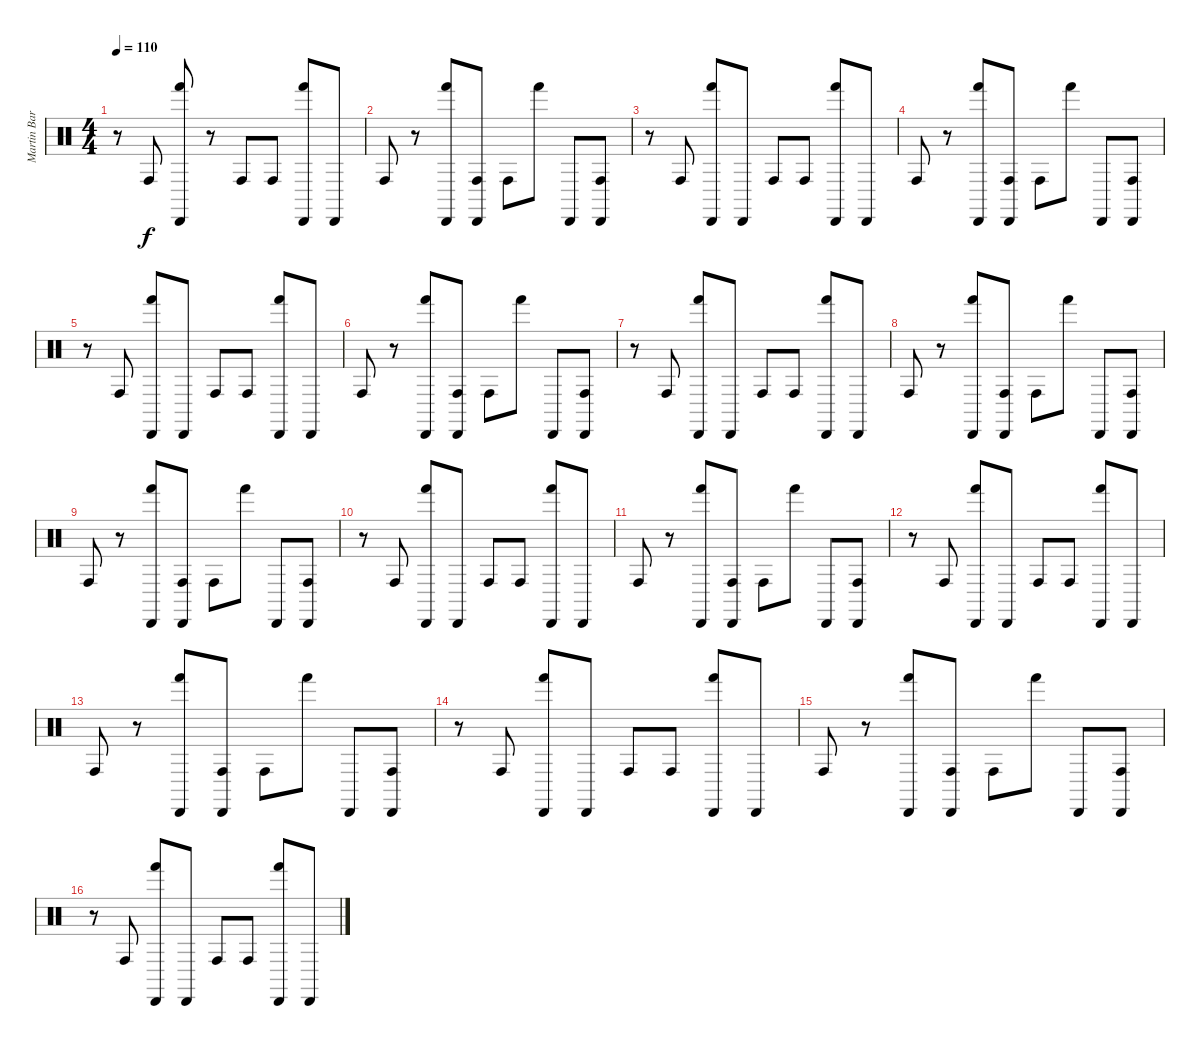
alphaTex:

\track ("Martin Barret" "Martin Bar") {instrument percussion}
\staff {score}
\articulation defaults
\ts (4 4)
\tempo 110
\clef neutral
\ks c
r.8{dy f} "Conga high (hit)".8 ("Cabasa (hit)" "Hand (hit)").8 r.8 "Conga high (hit)".8 "Conga high (hit)".8 ("Cabasa (hit)" "Hand (hit)").8 "Cabasa (hit)".8 |
"Conga high (hit)".8 r.8 ("Cabasa (hit)" "Hand (hit)").8 ("Cabasa (hit)" "Conga high (hit)").8 "Conga high (hit)".8 "Hand (hit)".8 "Cabasa (hit)".8 ("Cabasa (hit)" "Conga high (hit)").8 |
r.8 "Conga high (hit)".8 ("Cabasa (hit)" "Hand (hit)").8 "Cabasa (hit)".8 "Conga high (hit)".8 "Conga high (hit)".8 ("Cabasa (hit)" "Hand (hit)").8 "Cabasa (hit)".8 |
"Conga high (hit)".8 r.8 ("Cabasa (hit)" "Hand (hit)").8 ("Cabasa (hit)" "Conga high (hit)").8 "Conga high (hit)".8 "Hand (hit)".8 "Cabasa (hit)".8 ("Cabasa (hit)" "Conga high (hit)").8 |
r.8 "Conga high (hit)".8 ("Cabasa (hit)" "Hand (hit)").8 "Cabasa (hit)".8 "Conga high (hit)".8 "Conga high (hit)".8 ("Cabasa (hit)" "Hand (hit)").8 "Cabasa (hit)".8 |
"Conga high (hit)".8 r.8 ("Cabasa (hit)" "Hand (hit)").8 ("Cabasa (hit)" "Conga high (hit)").8 "Conga high (hit)".8 "Hand (hit)".8 "Cabasa (hit)".8 ("Cabasa (hit)" "Conga high (hit)").8 |
r.8 "Conga high (hit)".8 ("Cabasa (hit)" "Hand (hit)").8 "Cabasa (hit)".8 "Conga high (hit)".8 "Conga high (hit)".8 ("Cabasa (hit)" "Hand (hit)").8 "Cabasa (hit)".8 |
"Conga high (hit)".8 r.8 ("Cabasa (hit)" "Hand (hit)").8 ("Cabasa (hit)" "Conga high (hit)").8 "Conga high (hit)".8 "Hand (hit)".8 "Cabasa (hit)".8 ("Cabasa (hit)" "Conga high (hit)").8 |
"Conga high (hit)".8 r.8 ("Cabasa (hit)" "Hand (hit)").8 ("Cabasa (hit)" "Conga high (hit)").8 "Conga high (hit)".8 "Hand (hit)".8 "Cabasa (hit)".8 ("Cabasa (hit)" "Conga high (hit)").8 |
r.8 "Conga high (hit)".8 ("Cabasa (hit)" "Hand (hit)").8 "Cabasa (hit)".8 "Conga high (hit)".8 "Conga high (hit)".8 ("Cabasa (hit)" "Hand (hit)").8 "Cabasa (hit)".8 |
"Conga high (hit)".8 r.8 ("Cabasa (hit)" "Hand (hit)").8 ("Cabasa (hit)" "Conga high (hit)").8 "Conga high (hit)".8 "Hand (hit)".8 "Cabasa (hit)".8 ("Cabasa (hit)" "Conga high (hit)").8 |
r.8 "Conga high (hit)".8 ("Cabasa (hit)" "Hand (hit)").8 "Cabasa (hit)".8 "Conga high (hit)".8 "Conga high (hit)".8 ("Cabasa (hit)" "Hand (hit)").8 "Cabasa (hit)".8 |
"Conga high (hit)".8 r.8 ("Cabasa (hit)" "Hand (hit)").8 ("Cabasa (hit)" "Conga high (hit)").8 "Conga high (hit)".8 "Hand (hit)".8 "Cabasa (hit)".8 ("Cabasa (hit)" "Conga high (hit)").8 |
r.8 "Conga high (hit)".8 ("Cabasa (hit)" "Hand (hit)").8 "Cabasa (hit)".8 "Conga high (hit)".8 "Conga high (hit)".8 ("Cabasa (hit)" "Hand (hit)").8 "Cabasa (hit)".8 |
"Conga high (hit)".8 r.8 ("Cabasa (hit)" "Hand (hit)").8 ("Cabasa (hit)" "Conga high (hit)").8 "Conga high (hit)".8 "Hand (hit)".8 "Cabasa (hit)".8 ("Cabasa (hit)" "Conga high (hit)").8 |
r.8 "Conga high (hit)".8 ("Cabasa (hit)" "Hand (hit)").8 "Cabasa (hit)".8 "Conga high (hit)".8 "Conga high (hit)".8 ("Cabasa (hit)" "Hand (hit)").8 "Cabasa (hit)".8
